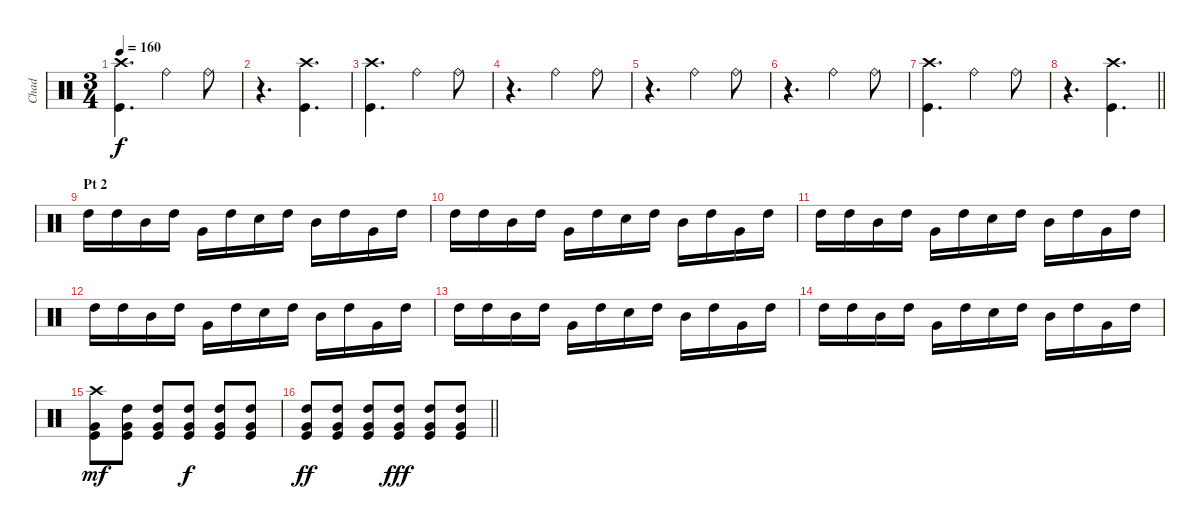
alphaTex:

\track ("Chad" "Chad") {instrument percussion}
\staff {score}
\articulation defaults
\ts (3 4)
\tempo 160
\clef neutral
\ks c
("Crash high (hit)" "Kick (hit)").4{d dy f} "Ride (bell)".4 "Ride (bell)".8 |
r.4{d} ("Crash high (hit)" "Kick (hit)").4{d} |
("Crash high (hit)" "Kick (hit)").4{d} "Ride (bell)".4 "Ride (bell)".8 |
r.4{d} "Ride (bell)".4 "Ride (bell)".8 |
r.4{d} "Ride (bell)".4 "Ride (bell)".8 |
r.4{d} "Ride (bell)".4 "Ride (bell)".8 |
("Crash high (hit)" "Kick (hit)").4{d} "Ride (bell)".4 "Ride (bell)".8 |
\barLineRight lightlight
r.4{d} ("Crash high (hit)" "Kick (hit)").4{d} |
\section ("" "Pt 2")
"High Tom (hit)".16 "High Tom (hit)".16 "Mid Tom (hit)".16 "High Tom (hit)".16 "Very Low Tom (hit)".16 "High Tom (hit)".16 "Snare (hit) 2".16 "High Tom (hit)".16 "Mid Tom (hit)".16 "High Tom (hit)".16 "Very Low Tom (hit)".16 "High Tom (hit)".16 |
"High Tom (hit)".16 "High Tom (hit)".16 "Mid Tom (hit)".16 "High Tom (hit)".16 "Very Low Tom (hit)".16 "High Tom (hit)".16 "Snare (hit) 2".16 "High Tom (hit)".16 "Mid Tom (hit)".16 "High Tom (hit)".16 "Very Low Tom (hit)".16 "High Tom (hit)".16 |
"High Tom (hit)".16 "High Tom (hit)".16 "Mid Tom (hit)".16 "High Tom (hit)".16 "Very Low Tom (hit)".16 "High Tom (hit)".16 "Snare (hit) 2".16 "High Tom (hit)".16 "Mid Tom (hit)".16 "High Tom (hit)".16 "Very Low Tom (hit)".16 "High Tom (hit)".16 |
"High Tom (hit)".16 "High Tom (hit)".16 "Mid Tom (hit)".16 "High Tom (hit)".16 "Very Low Tom (hit)".16 "High Tom (hit)".16 "Snare (hit) 2".16 "High Tom (hit)".16 "Mid Tom (hit)".16 "High Tom (hit)".16 "Very Low Tom (hit)".16 "High Tom (hit)".16 |
"High Tom (hit)".16 "High Tom (hit)".16 "Mid Tom (hit)".16 "High Tom (hit)".16 "Very Low Tom (hit)".16 "High Tom (hit)".16 "Snare (hit) 2".16 "High Tom (hit)".16 "Mid Tom (hit)".16 "High Tom (hit)".16 "Very Low Tom (hit)".16 "High Tom (hit)".16 |
"High Tom (hit)".16 "High Tom (hit)".16 "Mid Tom (hit)".16 "High Tom (hit)".16 "Very Low Tom (hit)".16 "High Tom (hit)".16 "Snare (hit) 2".16 "High Tom (hit)".16 "Mid Tom (hit)".16 "High Tom (hit)".16 "Very Low Tom (hit)".16 "High Tom (hit)".16 |
("Kick (hit)" "Very Low Tom (hit)" "Crash high (hit)").8{dy mf} ("Kick (hit)" "High Tom (hit)" "Very Low Tom (hit)").8 ("Kick (hit)" "High Tom (hit)" "Very Low Tom (hit)").8 ("Kick (hit)" "High Tom (hit)" "Very Low Tom (hit)").8{dy f} ("Kick (hit)" "High Tom (hit)" "Very Low Tom (hit)").8 ("Kick (hit)" "High Tom (hit)" "Very Low Tom (hit)").8 |
\barLineRight lightlight
("Kick (hit)" "Very Low Tom (hit)" "High Tom (hit)").8{dy ff} ("Kick (hit)" "High Tom (hit)" "Very Low Tom (hit)").8 ("Kick (hit)" "High Tom (hit)" "Very Low Tom (hit)").8 ("Kick (hit)" "High Tom (hit)" "Very Low Tom (hit)").8{dy fff} ("Kick (hit)" "High Tom (hit)" "Very Low Tom (hit)").8 ("Kick (hit)" "High Tom (hit)" "Very Low Tom (hit)").8
